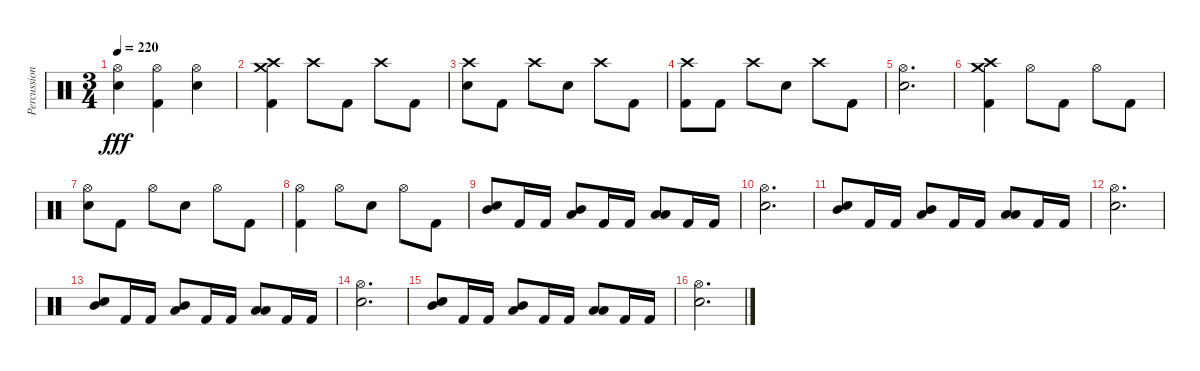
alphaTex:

\track ("Percussions" "Percussion") {instrument percussion}
\staff {score}
\articulation defaults
\ts (3 4)
\tempo 220
\clef neutral
\ks c
("Hi-Hat (open)" "Electric Snare (hit)").4{dy fff} ("Hi-Hat (open)" "Kick (hit) 2").4 ("Hi-Hat (open)" "Electric Snare (hit)").4 |
("Crash high (hit)" "Crash medium (hit)" "Kick (hit) 2").4{bd 240} "Crash high (hit)".8 "Kick (hit) 2".8 "Crash high (hit)".8 "Kick (hit) 2".8 |
("Crash high (hit)" "Electric Snare (hit)").8 "Kick (hit) 2".8 "Crash high (hit)".8 "Electric Snare (hit)".8 "Crash high (hit)".8 "Kick (hit) 2".8 |
("Crash high (hit)" "Kick (hit) 2").8 "Kick (hit) 2".8 "Crash high (hit)".8 "Electric Snare (hit)".8 "Crash high (hit)".8 "Kick (hit) 2".8 |
("Hi-Hat (open)" "Electric Snare (hit)").2{d} |
("Crash high (hit)" "Crash medium (hit)" "Kick (hit) 2").4{bd 240} "Hi-Hat (open)".8 "Kick (hit) 2".8 "Hi-Hat (open)".8 "Kick (hit) 2".8 |
("Hi-Hat (open)" "Electric Snare (hit)").8 "Kick (hit) 2".8 "Hi-Hat (open)".8 "Electric Snare (hit)".8 "Hi-Hat (open)".8 "Kick (hit) 2".8 |
("Hi-Hat (open)" "Kick (hit) 2").4 "Hi-Hat (open)".8 "Electric Snare (hit)".8 "Hi-Hat (open)".8 "Kick (hit) 2".8 |
("Mid Tom (hit)" "Electric Snare (hit)").8 "Kick (hit) 2".16 "Kick (hit) 2".16 ("Low Tom (hit)" "Mid Tom (hit)").8 "Kick (hit) 2".16 "Kick (hit) 2".16 ("Low Floor Tom (hit)" "Low Tom (hit)").8 "Kick (hit) 2".16 "Kick (hit) 2".16 |
("Hi-Hat (open)" "Electric Snare (hit)").2{d} |
("Mid Tom (hit)" "Electric Snare (hit)").8 "Kick (hit) 2".16 "Kick (hit) 2".16 ("Low Tom (hit)" "Mid Tom (hit)").8 "Kick (hit) 2".16 "Kick (hit) 2".16 ("Low Floor Tom (hit)" "Low Tom (hit)").8 "Kick (hit) 2".16 "Kick (hit) 2".16 |
("Hi-Hat (open)" "Electric Snare (hit)").2{d} |
("Mid Tom (hit)" "Electric Snare (hit)").8 "Kick (hit) 2".16 "Kick (hit) 2".16 ("Low Tom (hit)" "Mid Tom (hit)").8 "Kick (hit) 2".16 "Kick (hit) 2".16 ("Low Floor Tom (hit)" "Low Tom (hit)").8 "Kick (hit) 2".16 "Kick (hit) 2".16 |
("Hi-Hat (open)" "Electric Snare (hit)").2{d} |
("Mid Tom (hit)" "Electric Snare (hit)").8 "Kick (hit) 2".16 "Kick (hit) 2".16 ("Low Tom (hit)" "Mid Tom (hit)").8 "Kick (hit) 2".16 "Kick (hit) 2".16 ("Low Floor Tom (hit)" "Low Tom (hit)").8 "Kick (hit) 2".16 "Kick (hit) 2".16 |
("Hi-Hat (open)" "Electric Snare (hit)").2{d}
